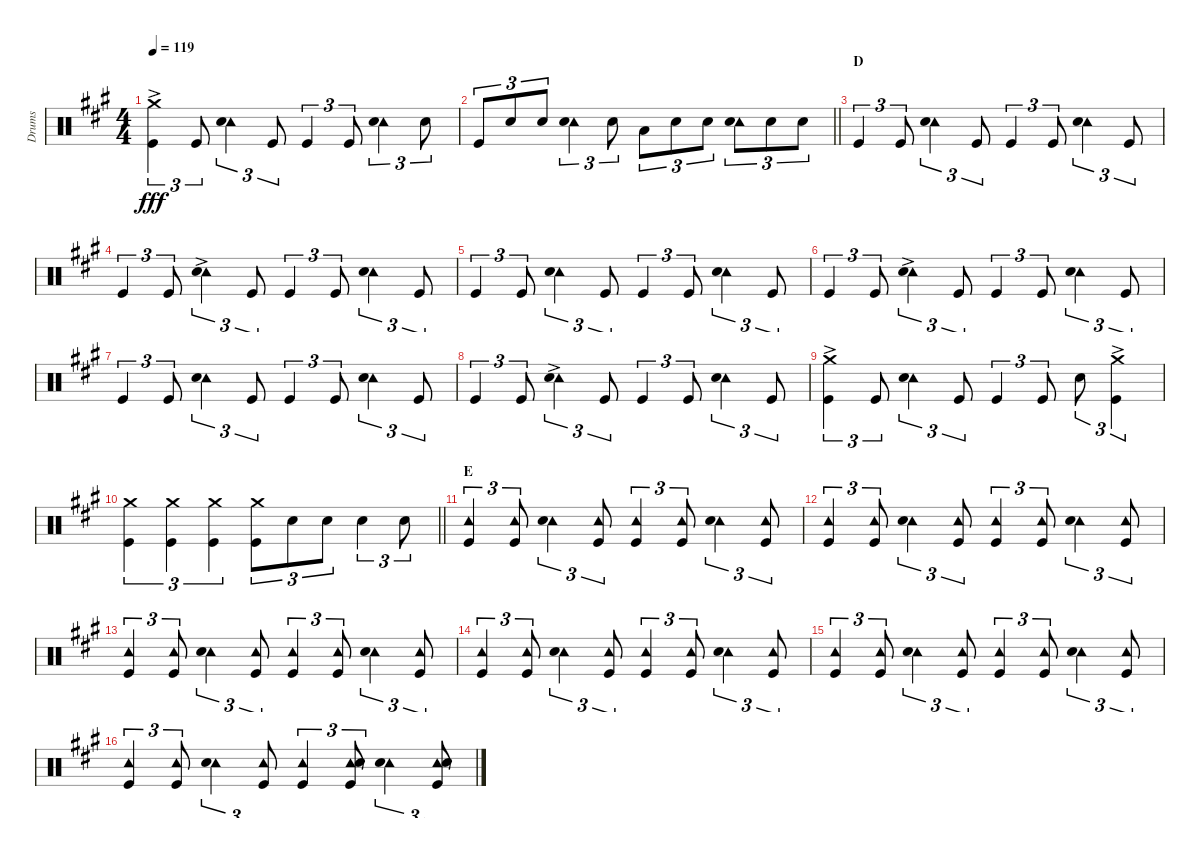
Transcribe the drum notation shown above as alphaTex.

\track ("Drums" "Drums") {instrument percussion}
\staff {score}
\articulation defaults
\ts (4 4)
\tempo 119
\clef neutral
\ks a
("Crash medium (hit)"{ac} "Kick (hit)").4{tu (3 2) dy fff} "Kick (hit)".8{tu (3 2)} ("Tambourine (hit)" "Snare (hit) 2").4{tu (3 2)} "Kick (hit)".8{tu (3 2)} "Kick (hit)".4{tu (3 2)} "Kick (hit)".8{tu (3 2)} ("Tambourine (hit)" "Snare (hit) 2").4{tu (3 2)} "Snare (hit) 2".8{tu (3 2)} |
\barLineRight lightlight "Kick (hit)".8{tu (3 2)} "Snare (hit) 2".8{tu (3 2)} "Snare (hit) 2".8{tu (3 2)}
("Tambourine (hit)" "Snare (hit) 2").4{tu (3 2)} "Snare (hit) 2".8{tu (3 2)} "Low Tom (hit)".8{tu (3 2)} "Snare (hit) 2".8{tu (3 2)} "Snare (hit) 2".8{tu (3 2)} ("Tambourine (hit)" "Snare (hit) 2").8{tu (3 2)} "Snare (hit) 2".8{tu (3 2)} "Snare (hit) 2".8{tu (3 2)} |
\section ("" "D")
"Kick (hit)".4{tu (3 2)} "Kick (hit)".8{tu (3 2)} ("Tambourine (hit)" "Snare (hit) 2").4{tu (3 2)} "Kick (hit)".8{tu (3 2)} "Kick (hit)".4{tu (3 2)} "Kick (hit)".8{tu (3 2)} ("Tambourine (hit)" "Snare (hit) 2").4{tu (3 2)} "Kick (hit)".8{tu (3 2)} |
"Kick (hit)".4{tu (3 2)} "Kick (hit)".8{tu (3 2)} ("Tambourine (hit)"{ac} "Snare (hit) 2"{ac}).4{tu (3 2)} "Kick (hit)".8{tu (3 2)} "Kick (hit)".4{tu (3 2)} "Kick (hit)".8{tu (3 2)} ("Tambourine (hit)" "Snare (hit) 2").4{tu (3 2)} "Kick (hit)".8{tu (3 2)} |
"Kick (hit)".4{tu (3 2)} "Kick (hit)".8{tu (3 2)} ("Tambourine (hit)" "Snare (hit) 2").4{tu (3 2)} "Kick (hit)".8{tu (3 2)} "Kick (hit)".4{tu (3 2)} "Kick (hit)".8{tu (3 2)} ("Tambourine (hit)" "Snare (hit) 2").4{tu (3 2)} "Kick (hit)".8{tu (3 2)} |
"Kick (hit)".4{tu (3 2)} "Kick (hit)".8{tu (3 2)} ("Tambourine (hit)"{ac} "Snare (hit) 2"{ac}).4{tu (3 2)} "Kick (hit)".8{tu (3 2)} "Kick (hit)".4{tu (3 2)} "Kick (hit)".8{tu (3 2)} ("Tambourine (hit)" "Snare (hit) 2").4{tu (3 2)} "Kick (hit)".8{tu (3 2)} |
"Kick (hit)".4{tu (3 2)} "Kick (hit)".8{tu (3 2)} ("Tambourine (hit)" "Snare (hit) 2").4{tu (3 2)} "Kick (hit)".8{tu (3 2)} "Kick (hit)".4{tu (3 2)} "Kick (hit)".8{tu (3 2)} ("Tambourine (hit)" "Snare (hit) 2").4{tu (3 2)} "Kick (hit)".8{tu (3 2)} |
"Kick (hit)".4{tu (3 2)} "Kick (hit)".8{tu (3 2)} ("Tambourine (hit)"{ac} "Snare (hit) 2"{ac}).4{tu (3 2)} "Kick (hit)".8{tu (3 2)} "Kick (hit)".4{tu (3 2)} "Kick (hit)".8{tu (3 2)} ("Tambourine (hit)" "Snare (hit) 2").4{tu (3 2)} "Kick (hit)".8{tu (3 2)} |
("Crash medium (hit)"{ac} "Kick (hit)").4{tu (3 2)} "Kick (hit)".8{tu (3 2)} ("Tambourine (hit)" "Snare (hit) 2").4{tu (3 2)} "Kick (hit)".8{tu (3 2)} "Kick (hit)".4{tu (3 2)} "Kick (hit)".8{tu (3 2)} "Snare (hit) 2".8{tu (3 2)} ("Crash medium (hit)"{ac} "Kick (hit)").4{tu (3 2)} |
\barLineRight lightlight
("Crash medium (hit)" "Kick (hit)").4{tu (3 2)} ("Crash medium (hit)" "Kick (hit)").4{tu (3 2)} ("Crash medium (hit)" "Kick (hit)").4{tu (3 2)} ("Crash medium (hit)" "Kick (hit)").8{tu (3 2)} "Snare (hit) 2".8{tu (3 2)} "Snare (hit) 2".8{tu (3 2)} "Snare (hit) 2".4{tu (3 2)} "Snare (hit) 2".8{tu (3 2)} |
\section ("" "E")
("Tambourine (hit)" "Kick (hit)").4{tu (3 2)} ("Tambourine (hit)" "Kick (hit)").8{tu (3 2)} ("Tambourine (hit)" "Snare (hit) 2").4{tu (3 2)} ("Tambourine (hit)" "Kick (hit)").8{tu (3 2)} ("Tambourine (hit)" "Kick (hit)").4{tu (3 2)} ("Tambourine (hit)" "Kick (hit)").8{tu (3 2)} ("Tambourine (hit)" "Snare (hit) 2").4{tu (3 2)} ("Tambourine (hit)" "Kick (hit)").8{tu (3 2)} |
("Tambourine (hit)" "Kick (hit)").4{tu (3 2)} ("Tambourine (hit)" "Kick (hit)").8{tu (3 2)} ("Tambourine (hit)" "Snare (hit) 2").4{tu (3 2)} ("Tambourine (hit)" "Kick (hit)").8{tu (3 2)} ("Tambourine (hit)" "Kick (hit)").4{tu (3 2)} ("Tambourine (hit)" "Kick (hit)").8{tu (3 2)} ("Tambourine (hit)" "Snare (hit) 2").4{tu (3 2)} ("Tambourine (hit)" "Kick (hit)").8{tu (3 2)} |
("Tambourine (hit)" "Kick (hit)").4{tu (3 2)} ("Tambourine (hit)" "Kick (hit)").8{tu (3 2)} ("Tambourine (hit)" "Snare (hit) 2").4{tu (3 2)} ("Tambourine (hit)" "Kick (hit)").8{tu (3 2)} ("Tambourine (hit)" "Kick (hit)").4{tu (3 2)} ("Tambourine (hit)" "Kick (hit)").8{tu (3 2)} ("Tambourine (hit)" "Snare (hit) 2").4{tu (3 2)} ("Tambourine (hit)" "Kick (hit)").8{tu (3 2)} |
("Tambourine (hit)" "Kick (hit)").4{tu (3 2)} ("Tambourine (hit)" "Kick (hit)").8{tu (3 2)} ("Tambourine (hit)" "Snare (hit) 2").4{tu (3 2)} ("Tambourine (hit)" "Kick (hit)").8{tu (3 2)} ("Tambourine (hit)" "Kick (hit)").4{tu (3 2)} ("Tambourine (hit)" "Kick (hit)").8{tu (3 2)} ("Tambourine (hit)" "Snare (hit) 2").4{tu (3 2)} ("Tambourine (hit)" "Kick (hit)").8{tu (3 2)} |
("Tambourine (hit)" "Kick (hit)").4{tu (3 2)} ("Tambourine (hit)" "Kick (hit)").8{tu (3 2)} ("Tambourine (hit)" "Snare (hit) 2").4{tu (3 2)} ("Tambourine (hit)" "Kick (hit)").8{tu (3 2)} ("Tambourine (hit)" "Kick (hit)").4{tu (3 2)} ("Tambourine (hit)" "Kick (hit)").8{tu (3 2)} ("Tambourine (hit)" "Snare (hit) 2").4{tu (3 2)} ("Tambourine (hit)" "Kick (hit)").8{tu (3 2)} |
("Tambourine (hit)" "Kick (hit)").4{tu (3 2)} ("Tambourine (hit)" "Kick (hit)").8{tu (3 2)} ("Tambourine (hit)" "Snare (hit) 2").4{tu (3 2)} ("Tambourine (hit)" "Kick (hit)").8{tu (3 2)} ("Tambourine (hit)" "Kick (hit)").4{tu (3 2)} ("Tambourine (hit)" "Snare (hit) 2" "Kick (hit)").8{tu (3 2)} ("Tambourine (hit)" "Snare (hit) 2").4{tu (3 2)} ("Tambourine (hit)" "Snare (hit) 2" "Kick (hit)").8{tu (3 2)}
